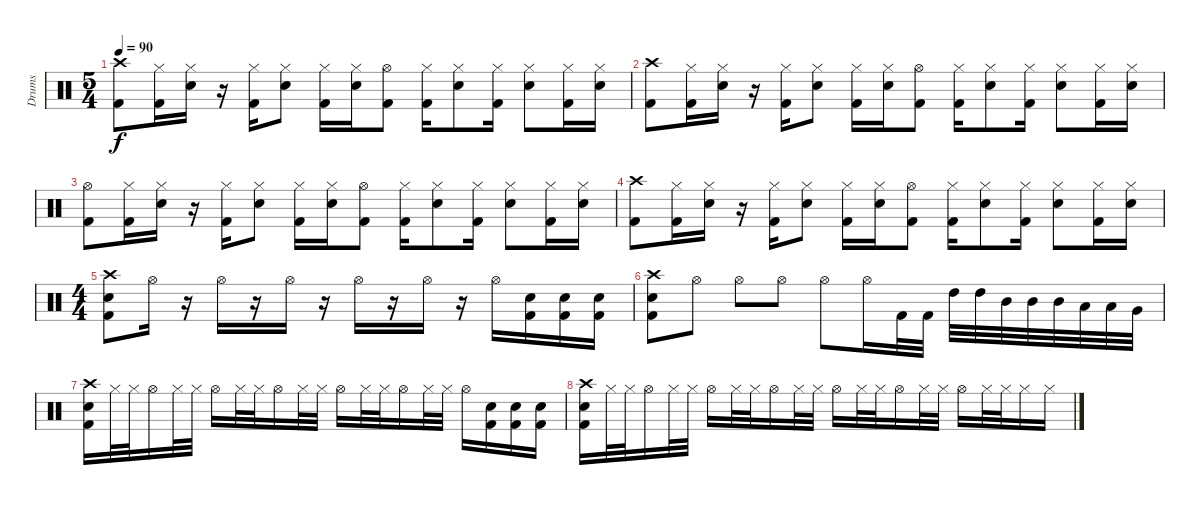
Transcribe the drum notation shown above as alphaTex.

\track ("Drums" "Drums") {instrument percussion}
\staff {score}
\articulation defaults
\ts (5 4)
\tempo 90
\clef neutral
\ks c
("Kick (hit) 2" "Crash high (hit)").8{dy f} ("Kick (hit) 2" "Hi-Hat (closed)").16 ("Snare (hit) 2" "Hi-Hat (closed)").16 r.16 ("Kick (hit) 2" "Hi-Hat (closed)").16 ("Snare (hit) 2" "Hi-Hat (closed)").8 ("Kick (hit) 2" "Hi-Hat (closed)").16 ("Snare (hit) 2" "Hi-Hat (closed)").16 ("Kick (hit) 2" "Hi-Hat (open)").8 ("Kick (hit) 2" "Hi-Hat (closed)").16 ("Snare (hit) 2" "Hi-Hat (closed)").8 ("Kick (hit) 2" "Hi-Hat (closed)").16 ("Snare (hit) 2" "Hi-Hat (closed)").8 ("Kick (hit) 2" "Hi-Hat (closed)").16 ("Snare (hit) 2" "Hi-Hat (closed)").16 |
("Kick (hit) 2" "Crash high (hit)").8 ("Kick (hit) 2" "Hi-Hat (closed)").16 ("Snare (hit) 2" "Hi-Hat (closed)").16 r.16 ("Kick (hit) 2" "Hi-Hat (closed)").16 ("Snare (hit) 2" "Hi-Hat (closed)").8 ("Kick (hit) 2" "Hi-Hat (closed)").16 ("Snare (hit) 2" "Hi-Hat (closed)").16 ("Kick (hit) 2" "Hi-Hat (open)").8 ("Kick (hit) 2" "Hi-Hat (closed)").16 ("Snare (hit) 2" "Hi-Hat (closed)").8 ("Kick (hit) 2" "Hi-Hat (closed)").16 ("Snare (hit) 2" "Hi-Hat (closed)").8 ("Kick (hit) 2" "Hi-Hat (closed)").16 ("Snare (hit) 2" "Hi-Hat (closed)").16 |
("Kick (hit) 2" "Hi-Hat (open)").8 ("Kick (hit) 2" "Hi-Hat (closed)").16 ("Snare (hit) 2" "Hi-Hat (closed)").16 r.16 ("Kick (hit) 2" "Hi-Hat (closed)").16 ("Snare (hit) 2" "Hi-Hat (closed)").8 ("Kick (hit) 2" "Hi-Hat (closed)").16 ("Snare (hit) 2" "Hi-Hat (closed)").16 ("Kick (hit) 2" "Hi-Hat (open)").8 ("Kick (hit) 2" "Hi-Hat (closed)").16 ("Snare (hit) 2" "Hi-Hat (closed)").8 ("Kick (hit) 2" "Hi-Hat (closed)").16 ("Snare (hit) 2" "Hi-Hat (closed)").8 ("Kick (hit) 2" "Hi-Hat (closed)").16 ("Snare (hit) 2" "Hi-Hat (closed)").16 |
("Kick (hit) 2" "Crash high (hit)").8 ("Kick (hit) 2" "Hi-Hat (closed)").16 ("Snare (hit) 2" "Hi-Hat (closed)").16 r.16 ("Kick (hit) 2" "Hi-Hat (closed)").16 ("Snare (hit) 2" "Hi-Hat (closed)").8 ("Kick (hit) 2" "Hi-Hat (closed)").16 ("Snare (hit) 2" "Hi-Hat (closed)").16 ("Kick (hit) 2" "Hi-Hat (open)").8 ("Kick (hit) 2" "Hi-Hat (closed)").16 ("Snare (hit) 2" "Hi-Hat (closed)").8 ("Kick (hit) 2" "Hi-Hat (closed)").16 ("Snare (hit) 2" "Hi-Hat (closed)").8 ("Kick (hit) 2" "Hi-Hat (closed)").16 ("Snare (hit) 2" "Hi-Hat (closed)").16 |
\ts (4 4)
("Kick (hit) 2" "Snare (hit) 2" "Crash high (hit)").8 "Hi-Hat (open)".16 r.16 "Hi-Hat (open)".16 r.16 "Hi-Hat (open)".16 r.16 "Hi-Hat (open)".16 r.16 "Hi-Hat (open)".16 r.16 "Hi-Hat (open)".16 ("Kick (hit) 2" "Snare (hit) 2").16 ("Kick (hit) 2" "Snare (hit) 2").16 ("Kick (hit) 2" "Snare (hit) 2").16 |
("Kick (hit) 2" "Snare (hit) 2" "Crash high (hit)").8 "Hi-Hat (open)".8 "Hi-Hat (open)".8 "Hi-Hat (open)".8 "Hi-Hat (open)".8 "Hi-Hat (open)".16 "Kick (hit) 2".32 "Kick (hit) 2".32 "High Tom (hit)".32 "High Tom (hit)".32 "Mid Tom (hit)".32 "Mid Tom (hit)".32 "Mid Tom (hit)".32 "Low Tom (hit)".32 "Low Tom (hit)".32 "Very Low Tom (hit)".32 |
("Kick (hit) 2" "Snare (hit) 2" "Crash high (hit)").16 "Hi-Hat (closed)".32 "Hi-Hat (closed)".32 "Hi-Hat (open)".16 "Hi-Hat (closed)".32 "Hi-Hat (closed)".32 "Hi-Hat (open)".16 "Hi-Hat (closed)".32 "Hi-Hat (closed)".32 "Hi-Hat (open)".16 "Hi-Hat (closed)".32 "Hi-Hat (closed)".32 "Hi-Hat (open)".16 "Hi-Hat (closed)".32 "Hi-Hat (closed)".32 "Hi-Hat (open)".16 "Hi-Hat (closed)".32 "Hi-Hat (closed)".32 "Hi-Hat (open)".16 ("Kick (hit) 2" "Snare (hit) 2").16 ("Kick (hit) 2" "Snare (hit) 2").16 ("Kick (hit) 2" "Snare (hit) 2").16 |
("Kick (hit) 2" "Snare (hit) 2" "Crash high (hit)").16 "Hi-Hat (closed)".32 "Hi-Hat (closed)".32 "Hi-Hat (open)".16 "Hi-Hat (closed)".32 "Hi-Hat (closed)".32 "Hi-Hat (open)".16 "Hi-Hat (closed)".32 "Hi-Hat (closed)".32 "Hi-Hat (open)".16 "Hi-Hat (closed)".32 "Hi-Hat (closed)".32 "Hi-Hat (open)".16 "Hi-Hat (closed)".32 "Hi-Hat (closed)".32 "Hi-Hat (open)".16 "Hi-Hat (closed)".32 "Hi-Hat (closed)".32 "Hi-Hat (open)".16 "Hi-Hat (closed)".32 "Hi-Hat (closed)".32 "Hi-Hat (closed)".16 "Hi-Hat (closed)".16
